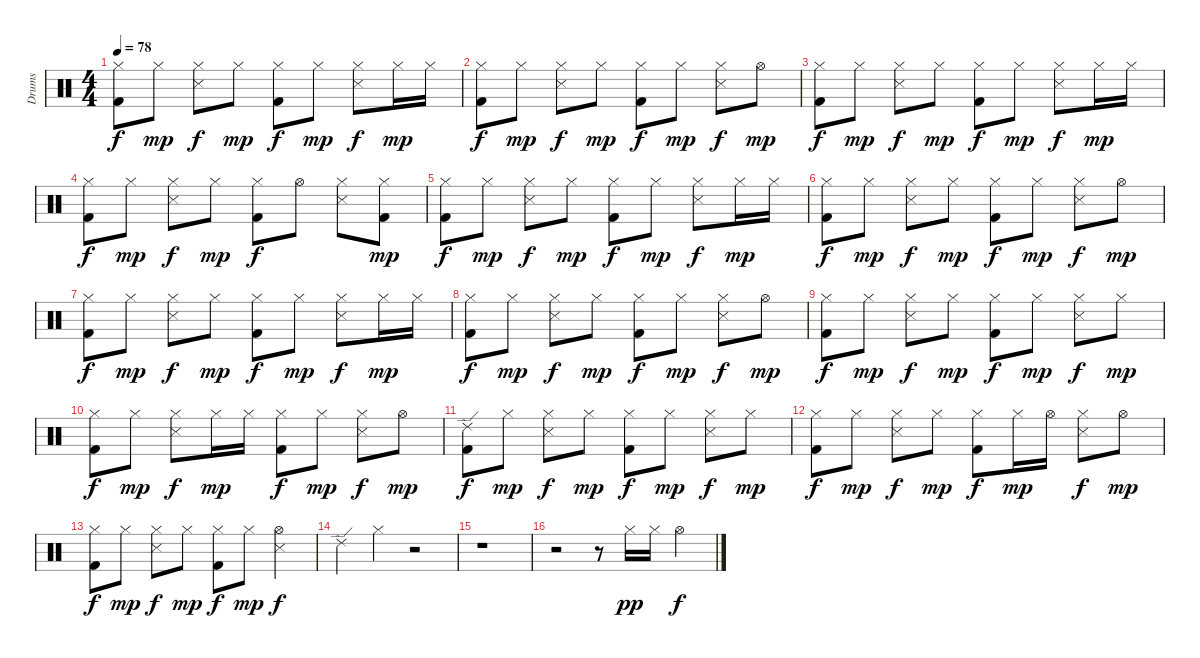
\track ("Drums" "Drums") {instrument percussion}
\staff {score}
\articulation defaults
\ts (4 4)
\tempo 78
\clef neutral
\ks c
("Hi-Hat (closed)" "Kick (hit) 2").8{dy f} "Hi-Hat (closed)".8{dy mp} ("Hi-Hat (closed)" "Snare (side stick) 3").8{dy f} "Hi-Hat (closed)".8{dy mp} ("Hi-Hat (closed)" "Kick (hit) 2").8{dy f} "Hi-Hat (closed)".8{dy mp} ("Hi-Hat (closed)" "Snare (side stick) 3").8{dy f} "Hi-Hat (closed)".16{dy mp} "Hi-Hat (closed)".16 |
("Hi-Hat (closed)" "Kick (hit) 2").8{dy f} "Hi-Hat (closed)".8{dy mp} ("Hi-Hat (closed)" "Snare (side stick) 3").8{dy f} "Hi-Hat (closed)".8{dy mp} ("Hi-Hat (closed)" "Kick (hit) 2").8{dy f} "Hi-Hat (closed)".8{dy mp} ("Hi-Hat (closed)" "Snare (side stick) 3").8{dy f} "Hi-Hat (open)".8{dy mp} |
("Hi-Hat (closed)" "Kick (hit) 2").8{dy f} "Hi-Hat (closed)".8{dy mp} ("Hi-Hat (closed)" "Snare (side stick) 3").8{dy f} "Hi-Hat (closed)".8{dy mp} ("Hi-Hat (closed)" "Kick (hit) 2").8{dy f} "Hi-Hat (closed)".8{dy mp} ("Hi-Hat (closed)" "Snare (side stick) 3").8{dy f} "Hi-Hat (closed)".16{dy mp} "Hi-Hat (closed)".16 |
("Hi-Hat (closed)" "Kick (hit) 2").8{dy f} "Hi-Hat (closed)".8{dy mp} ("Hi-Hat (closed)" "Snare (side stick) 3").8{dy f} "Hi-Hat (closed)".8{dy mp} ("Hi-Hat (closed)" "Kick (hit) 2").8{dy f} "Hi-Hat (open)".8 ("Hi-Hat (closed)" "Snare (side stick) 3").8 ("Hi-Hat (closed)" "Kick (hit) 2").8{dy mp} |
("Hi-Hat (closed)" "Kick (hit) 2").8{dy f} "Hi-Hat (closed)".8{dy mp} ("Hi-Hat (closed)" "Snare (side stick) 3").8{dy f} "Hi-Hat (closed)".8{dy mp} ("Hi-Hat (closed)" "Kick (hit) 2").8{dy f} "Hi-Hat (closed)".8{dy mp} ("Hi-Hat (closed)" "Snare (side stick) 3").8{dy f} "Hi-Hat (closed)".16{dy mp} "Hi-Hat (closed)".16 |
("Hi-Hat (closed)" "Kick (hit) 2").8{dy f} "Hi-Hat (closed)".8{dy mp} ("Hi-Hat (closed)" "Snare (side stick) 3").8{dy f} "Hi-Hat (closed)".8{dy mp} ("Hi-Hat (closed)" "Kick (hit) 2").8{dy f} "Hi-Hat (closed)".8{dy mp} ("Hi-Hat (closed)" "Snare (side stick) 3").8{dy f} "Hi-Hat (open)".8{dy mp} |
("Hi-Hat (closed)" "Kick (hit) 2").8{dy f} "Hi-Hat (closed)".8{dy mp} ("Hi-Hat (closed)" "Snare (side stick) 3").8{dy f} "Hi-Hat (closed)".8{dy mp} ("Hi-Hat (closed)" "Kick (hit) 2").8{dy f} "Hi-Hat (closed)".8{dy mp} ("Hi-Hat (closed)" "Snare (side stick) 3").8{dy f} "Hi-Hat (closed)".16{dy mp} "Hi-Hat (closed)".16 |
("Hi-Hat (closed)" "Kick (hit) 2").8{dy f} "Hi-Hat (closed)".8{dy mp} ("Hi-Hat (closed)" "Snare (side stick) 3").8{dy f} "Hi-Hat (closed)".8{dy mp} ("Hi-Hat (closed)" "Kick (hit) 2").8{dy f} "Hi-Hat (closed)".8{dy mp} ("Hi-Hat (closed)" "Snare (side stick) 3").8{dy f} "Hi-Hat (open)".8{dy mp} |
("Hi-Hat (closed)" "Kick (hit) 2").8{dy f} "Hi-Hat (closed)".8{dy mp} ("Hi-Hat (closed)" "Snare (side stick) 3").8{dy f} "Hi-Hat (closed)".8{dy mp} ("Hi-Hat (closed)" "Kick (hit) 2").8{dy f} "Hi-Hat (closed)".8{dy mp} ("Hi-Hat (closed)" "Snare (side stick) 3").8{dy f} "Hi-Hat (closed)".8{dy mp} |
("Hi-Hat (closed)" "Kick (hit) 2").8{dy f} "Hi-Hat (closed)".8{dy mp} ("Hi-Hat (closed)" "Snare (side stick) 3").8{dy f} "Hi-Hat (closed)".16{dy mp} "Hi-Hat (closed)".16 ("Hi-Hat (closed)" "Kick (hit) 2").8{dy f} "Hi-Hat (closed)".8{dy mp} ("Hi-Hat (closed)" "Snare (side stick) 3").8{dy f} "Hi-Hat (open)".8{dy mp} |
("Ride (edge) 2" "Kick (hit) 2").8{dy f} "Hi-Hat (closed)".8{dy mp} ("Hi-Hat (closed)" "Snare (side stick) 3").8{dy f} "Hi-Hat (closed)".8{dy mp} ("Hi-Hat (closed)" "Kick (hit) 2").8{dy f} "Hi-Hat (closed)".8{dy mp} ("Hi-Hat (closed)" "Snare (side stick) 3").8{dy f} "Hi-Hat (closed)".8{dy mp} |
("Hi-Hat (closed)" "Kick (hit) 2").8{dy f} "Hi-Hat (closed)".8{dy mp} ("Hi-Hat (closed)" "Snare (side stick) 3").8{dy f} "Hi-Hat (closed)".8{dy mp} ("Hi-Hat (closed)" "Kick (hit) 2").8{dy f} "Hi-Hat (closed)".16{dy mp} "Hi-Hat (open)".16 ("Hi-Hat (closed)" "Snare (side stick) 3").8{dy f} "Hi-Hat (open)".8{dy mp} |
("Hi-Hat (closed)" "Kick (hit) 2").8{dy f} "Hi-Hat (closed)".8{dy mp} ("Hi-Hat (closed)" "Snare (side stick) 3").8{dy f} "Hi-Hat (closed)".8{dy mp} ("Hi-Hat (closed)" "Kick (hit) 2").8{dy f} "Hi-Hat (closed)".8{dy mp} ("Hi-Hat (open)" "Snare (side stick) 3").4{dy f} |
"Ride (edge) 2".4 "Hi-Hat (closed)".4 r.2 |
r.1 |
r.2 r.8 "Hi-Hat (closed)".16{dy pp} "Hi-Hat (closed)".16 "Hi-Hat (open)".4{dy f}
